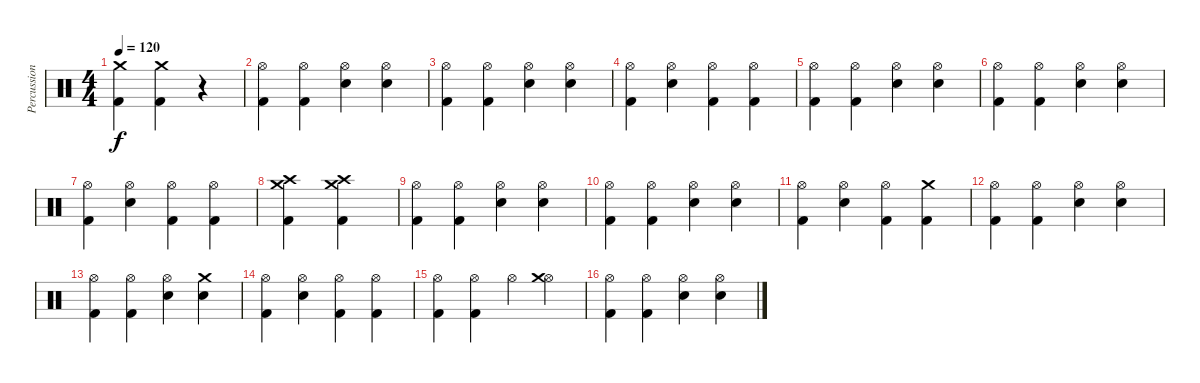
\track ("Percussion" "Percussion") {instrument percussion}
\staff {score}
\articulation defaults
\ts (4 4)
\tempo 120
\clef neutral
\ks c
("Kick (hit) 2" "Crash medium (hit)").4{dy f} ("Kick (hit) 2" "Crash medium (hit)").4 r.4 |
("Kick (hit) 2" "Hi-Hat (open)").4 ("Kick (hit) 2" "Hi-Hat (open)").4 ("Snare (hit) 2" "Hi-Hat (open)").4 ("Snare (hit) 2" "Hi-Hat (open)").4 |
("Kick (hit) 2" "Hi-Hat (open)").4 ("Kick (hit) 2" "Hi-Hat (open)").4 ("Snare (hit) 2" "Hi-Hat (open)").4 ("Snare (hit) 2" "Hi-Hat (open)").4 |
("Kick (hit) 2" "Hi-Hat (open)").4 ("Snare (hit) 2" "Hi-Hat (open)").4 ("Kick (hit) 2" "Hi-Hat (open)").4 ("Kick (hit) 2" "Hi-Hat (open)").4 |
("Kick (hit) 2" "Hi-Hat (open)").4 ("Kick (hit) 2" "Hi-Hat (open)").4 ("Snare (hit) 2" "Hi-Hat (open)").4 ("Snare (hit) 2" "Hi-Hat (open)").4 |
("Kick (hit) 2" "Hi-Hat (open)").4 ("Kick (hit) 2" "Hi-Hat (open)").4 ("Snare (hit) 2" "Hi-Hat (open)").4 ("Snare (hit) 2" "Hi-Hat (open)").4 |
("Kick (hit) 2" "Hi-Hat (open)").4 ("Snare (hit) 2" "Hi-Hat (open)").4 ("Kick (hit) 2" "Hi-Hat (open)").4 ("Kick (hit) 2" "Hi-Hat (open)").4 |
("Kick (hit) 2" "Crash medium (hit)" "Crash high (hit)").4 ("Kick (hit) 2" "Crash high (hit)" "Crash medium (hit)").4 |
("Kick (hit) 2" "Hi-Hat (open)").4 ("Kick (hit) 2" "Hi-Hat (open)").4 ("Snare (hit) 2" "Hi-Hat (open)").4 ("Snare (hit) 2" "Hi-Hat (open)").4 |
("Kick (hit) 2" "Hi-Hat (open)").4 ("Kick (hit) 2" "Hi-Hat (open)").4 ("Snare (hit) 2" "Hi-Hat (open)").4 ("Snare (hit) 2" "Hi-Hat (open)").4 |
("Kick (hit) 2" "Hi-Hat (open)").4 ("Snare (hit) 2" "Hi-Hat (open)").4 ("Kick (hit) 2" "Hi-Hat (open)").4 ("Kick (hit) 2" "Crash medium (hit)").4 |
("Kick (hit) 2" "Hi-Hat (open)").4 ("Kick (hit) 2" "Hi-Hat (open)").4 ("Snare (hit) 2" "Hi-Hat (open)").4 ("Snare (hit) 2" "Hi-Hat (open)").4 |
("Kick (hit) 2" "Hi-Hat (open)").4 ("Kick (hit) 2" "Hi-Hat (open)").4 ("Snare (hit) 2" "Hi-Hat (open)").4 ("Snare (hit) 2" "Crash medium (hit)").4 |
("Kick (hit) 2" "Hi-Hat (open)").4 ("Snare (hit) 2" "Hi-Hat (open)").4 ("Kick (hit) 2" "Hi-Hat (open)").4 ("Kick (hit) 2" "Hi-Hat (open)").4 |
("Kick (hit) 2" "Hi-Hat (open)").4 ("Kick (hit) 2" "Hi-Hat (open)").4 "Hi-Hat (open)".4 ("Hi-Hat (open)" "Crash medium (hit)").4 |
("Kick (hit) 2" "Hi-Hat (open)").4 ("Kick (hit) 2" "Hi-Hat (open)").4 ("Snare (hit) 2" "Hi-Hat (open)").4 ("Snare (hit) 2" "Hi-Hat (open)").4
